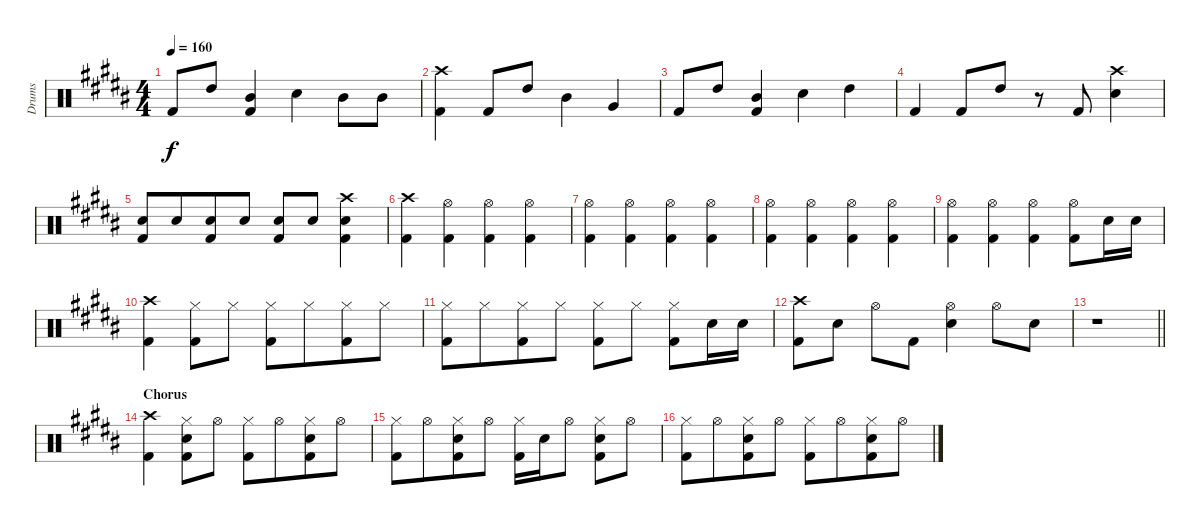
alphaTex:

\track ("Drums" "Drums") {instrument percussion}
\staff {score}
\articulation defaults
\ts (4 4)
\tempo 160
\clef neutral
\ks b "Kick (hit) 2".8{dy f} "High Tom (hit)".8
("Mid Tom (hit)" "Kick (hit) 2").4 "Snare (hit) 2".4 "Mid Tom (hit)".8 "Mid Tom (hit)".8 |
("Kick (hit) 2" "Crash high (hit)").4 "Kick (hit) 2".8 "High Tom (hit)".8 "Mid Tom (hit)".4 "Very Low Tom (hit)".4 |
"Kick (hit) 2".8 "High Tom (hit)".8 ("Mid Tom (hit)" "Kick (hit) 2").4 "Snare (hit) 2".4 "High Tom (hit)".4 |
"Kick (hit) 2".4 "Kick (hit) 2".8 "High Tom (hit)".8 r.8 "Kick (hit) 2".8 ("Snare (hit) 2" "Crash high (hit)").4 |
("Snare (hit) 2" "Kick (hit) 2").8 "Snare (hit) 2".8{beam merge} ("Snare (hit) 2" "Kick (hit) 2").8 "Snare (hit) 2".8 ("Snare (hit) 2" "Kick (hit) 2").8 "Snare (hit) 2".8 ("Snare (hit) 2" "Kick (hit) 2" "Crash high (hit)").4 |
("Kick (hit) 2" "Crash high (hit)").4 ("Hi-Hat (open)" "Kick (hit) 2").4 ("Hi-Hat (open)" "Kick (hit) 2").4 ("Hi-Hat (open)" "Kick (hit) 2").4 |
("Hi-Hat (open)" "Kick (hit) 2").4 ("Hi-Hat (open)" "Kick (hit) 2").4 ("Hi-Hat (open)" "Kick (hit) 2").4 ("Hi-Hat (open)" "Kick (hit) 2").4 |
("Hi-Hat (open)" "Kick (hit) 2").4 ("Hi-Hat (open)" "Kick (hit) 2").4 ("Hi-Hat (open)" "Kick (hit) 2").4 ("Hi-Hat (open)" "Kick (hit) 2").4 |
("Hi-Hat (open)" "Kick (hit) 2").4 ("Hi-Hat (open)" "Kick (hit) 2").4 ("Hi-Hat (open)" "Kick (hit) 2").4 ("Hi-Hat (open)" "Kick (hit) 2").8 "Snare (hit) 2".16 "Snare (hit) 2".16 |
("Kick (hit) 2" "Crash high (hit)").4 ("Hi-Hat (closed)" "Kick (hit) 2").8 "Hi-Hat (closed)".8 ("Hi-Hat (closed)" "Kick (hit) 2").8 "Hi-Hat (closed)".8{beam merge} ("Hi-Hat (closed)" "Kick (hit) 2").8 "Hi-Hat (closed)".8 |
("Hi-Hat (closed)" "Kick (hit) 2").8 "Hi-Hat (closed)".8{beam merge} ("Hi-Hat (closed)" "Kick (hit) 2").8 "Hi-Hat (closed)".8 ("Hi-Hat (closed)" "Kick (hit) 2").8 "Hi-Hat (closed)".8 ("Hi-Hat (closed)" "Kick (hit) 2").8 "Snare (hit) 2".16 "Snare (hit) 2".16 |
("Kick (hit) 2" "Crash high (hit)").8 "Snare (hit) 2".8 "Hi-Hat (open)".8 "Kick (hit) 2".8 ("Hi-Hat (open)" "Snare (hit) 2").4 "Hi-Hat (open)".8 "Snare (hit) 2".8 |
\barLineRight lightlight
r.1 |
\section ("" "Chorus")
("Kick (hit) 2" "Crash high (hit)").4 ("Hi-Hat (closed)" "Snare (hit) 2" "Kick (hit) 2").8 "Hi-Hat (open)".8 ("Hi-Hat (closed)" "Kick (hit) 2").8 "Hi-Hat (open)".8{beam merge} ("Hi-Hat (closed)" "Snare (hit) 2" "Kick (hit) 2").8 "Hi-Hat (open)".8 |
("Hi-Hat (closed)" "Kick (hit) 2").8 "Hi-Hat (open)".8{beam merge} ("Hi-Hat (closed)" "Snare (hit) 2" "Kick (hit) 2").8 "Hi-Hat (open)".8 ("Hi-Hat (closed)" "Kick (hit) 2").16 "Snare (hit) 2".16 "Hi-Hat (open)".8 ("Hi-Hat (closed)" "Snare (hit) 2" "Kick (hit) 2").8 "Hi-Hat (open)".8 |
("Hi-Hat (closed)" "Kick (hit) 2").8 "Hi-Hat (open)".8{beam merge} ("Hi-Hat (closed)" "Snare (hit) 2" "Kick (hit) 2").8 "Hi-Hat (open)".8 ("Hi-Hat (closed)" "Kick (hit) 2").8 "Hi-Hat (open)".8{beam merge} ("Hi-Hat (closed)" "Snare (hit) 2" "Kick (hit) 2").8 "Hi-Hat (open)".8
